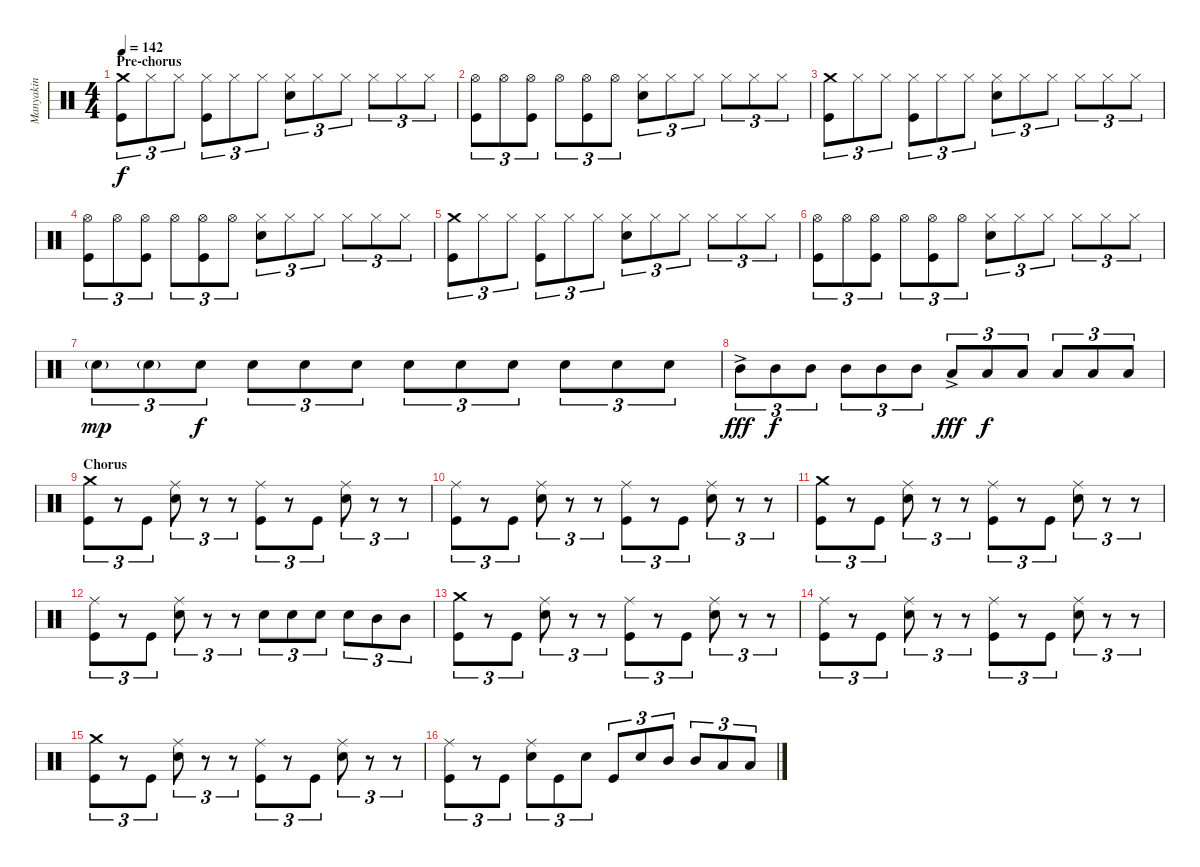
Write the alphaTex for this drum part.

\track ("Manyakin" "Manyakin") {instrument percussion}
\staff {score}
\articulation defaults
\ts (4 4)
\section ("" "Pre-chorus")
\tempo 142
\clef neutral
\ks c
("Kick (hit)" "Crash medium (hit)").8{tu (3 2) dy f} "Hi-Hat (closed)".8{tu (3 2)} "Hi-Hat (closed)".8{tu (3 2)} ("Kick (hit)" "Hi-Hat (closed)").8{tu (3 2)} "Hi-Hat (closed)".8{tu (3 2)} "Hi-Hat (closed)".8{tu (3 2)} ("Electric Snare (hit)" "Hi-Hat (closed)").8{tu (3 2)} "Hi-Hat (closed)".8{tu (3 2)} "Hi-Hat (closed)".8{tu (3 2)} "Hi-Hat (closed)".8{tu (3 2)} "Hi-Hat (closed)".8{tu (3 2)} "Hi-Hat (closed)".8{tu (3 2)} |
("Kick (hit)" "Hi-Hat (open)").8{tu (3 2)} "Hi-Hat (open)".8{tu (3 2)} ("Kick (hit)" "Hi-Hat (open)").8{tu (3 2)} "Hi-Hat (open)".8{tu (3 2)} ("Kick (hit)" "Hi-Hat (open)").8{tu (3 2)} "Hi-Hat (open)".8{tu (3 2)} ("Electric Snare (hit)" "Hi-Hat (closed)").8{tu (3 2)} "Hi-Hat (closed)".8{tu (3 2)} "Hi-Hat (closed)".8{tu (3 2)} "Hi-Hat (closed)".8{tu (3 2)} "Hi-Hat (closed)".8{tu (3 2)} "Hi-Hat (closed)".8{tu (3 2)} |
("Kick (hit)" "Crash medium (hit)").8{tu (3 2)} "Hi-Hat (closed)".8{tu (3 2)} "Hi-Hat (closed)".8{tu (3 2)} ("Kick (hit)" "Hi-Hat (closed)").8{tu (3 2)} "Hi-Hat (closed)".8{tu (3 2)} "Hi-Hat (closed)".8{tu (3 2)} ("Electric Snare (hit)" "Hi-Hat (closed)").8{tu (3 2)} "Hi-Hat (closed)".8{tu (3 2)} "Hi-Hat (closed)".8{tu (3 2)} "Hi-Hat (closed)".8{tu (3 2)} "Hi-Hat (closed)".8{tu (3 2)} "Hi-Hat (closed)".8{tu (3 2)} |
("Kick (hit)" "Hi-Hat (open)").8{tu (3 2)} "Hi-Hat (open)".8{tu (3 2)} ("Kick (hit)" "Hi-Hat (open)").8{tu (3 2)} "Hi-Hat (open)".8{tu (3 2)} ("Kick (hit)" "Hi-Hat (open)").8{tu (3 2)} "Hi-Hat (open)".8{tu (3 2)} ("Electric Snare (hit)" "Hi-Hat (closed)").8{tu (3 2)} "Hi-Hat (closed)".8{tu (3 2)} "Hi-Hat (closed)".8{tu (3 2)} "Hi-Hat (closed)".8{tu (3 2)} "Hi-Hat (closed)".8{tu (3 2)} "Hi-Hat (closed)".8{tu (3 2)} |
("Kick (hit)" "Crash medium (hit)").8{tu (3 2)} "Hi-Hat (closed)".8{tu (3 2)} "Hi-Hat (closed)".8{tu (3 2)} ("Kick (hit)" "Hi-Hat (closed)").8{tu (3 2)} "Hi-Hat (closed)".8{tu (3 2)} "Hi-Hat (closed)".8{tu (3 2)} ("Electric Snare (hit)" "Hi-Hat (closed)").8{tu (3 2)} "Hi-Hat (closed)".8{tu (3 2)} "Hi-Hat (closed)".8{tu (3 2)} "Hi-Hat (closed)".8{tu (3 2)} "Hi-Hat (closed)".8{tu (3 2)} "Hi-Hat (closed)".8{tu (3 2)} |
("Kick (hit)" "Hi-Hat (open)").8{tu (3 2)} "Hi-Hat (open)".8{tu (3 2)} ("Kick (hit)" "Hi-Hat (open)").8{tu (3 2)} "Hi-Hat (open)".8{tu (3 2)} ("Kick (hit)" "Hi-Hat (open)").8{tu (3 2)} "Hi-Hat (open)".8{tu (3 2)} ("Electric Snare (hit)" "Hi-Hat (closed)").8{tu (3 2)} "Hi-Hat (closed)".8{tu (3 2)} "Hi-Hat (closed)".8{tu (3 2)} "Hi-Hat (closed)".8{tu (3 2)} "Hi-Hat (closed)".8{tu (3 2)} "Hi-Hat (closed)".8{tu (3 2)} |
"Electric Snare (hit)"{g}.8{tu (3 2) dy mp} "Electric Snare (hit)"{g}.8{tu (3 2)} "Electric Snare (hit)".8{tu (3 2) dy f} "Electric Snare (hit)".8{tu (3 2)} "Electric Snare (hit)".8{tu (3 2)} "Electric Snare (hit)".8{tu (3 2)} "Electric Snare (hit)".8{tu (3 2)} "Electric Snare (hit)".8{tu (3 2)} "Electric Snare (hit)".8{tu (3 2)} "Electric Snare (hit)".8{tu (3 2)} "Electric Snare (hit)".8{tu (3 2)} "Electric Snare (hit)".8{tu (3 2)} |
"Mid Tom (hit)"{ac}.8{tu (3 2) dy fff} "Mid Tom (hit)".8{tu (3 2) dy f} "Mid Tom (hit)".8{tu (3 2)} "Mid Tom (hit)".8{tu (3 2)} "Mid Tom (hit)".8{tu (3 2)} "Mid Tom (hit)".8{tu (3 2)} "Low Tom (hit)"{ac}.8{tu (3 2) dy fff} "Low Tom (hit)".8{tu (3 2) dy f} "Low Tom (hit)".8{tu (3 2)} "Low Tom (hit)".8{tu (3 2)} "Low Tom (hit)".8{tu (3 2)} "Low Tom (hit)".8{tu (3 2)} |
\section ("" "Chorus")
("Kick (hit)" "Crash medium (hit)").8{tu (3 2)} r.8{tu (3 2)} "Kick (hit)".8{tu (3 2)} ("Electric Snare (hit)" "Ride (middle)").8{tu (3 2)} r.8{tu (3 2)} r.8{tu (3 2)} ("Kick (hit)" "Ride (middle)").8{tu (3 2)} r.8{tu (3 2)} "Kick (hit)".8{tu (3 2)} ("Electric Snare (hit)" "Ride (middle)").8{tu (3 2)} r.8{tu (3 2)} r.8{tu (3 2)} |
("Kick (hit)" "Ride (middle)").8{tu (3 2)} r.8{tu (3 2)} "Kick (hit)".8{tu (3 2)} ("Electric Snare (hit)" "Ride (middle)").8{tu (3 2)} r.8{tu (3 2)} r.8{tu (3 2)} ("Kick (hit)" "Ride (middle)").8{tu (3 2)} r.8{tu (3 2)} "Kick (hit)".8{tu (3 2)} ("Electric Snare (hit)" "Ride (middle)").8{tu (3 2)} r.8{tu (3 2)} r.8{tu (3 2)} |
("Kick (hit)" "Crash medium (hit)").8{tu (3 2)} r.8{tu (3 2)} "Kick (hit)".8{tu (3 2)} ("Electric Snare (hit)" "Ride (middle)").8{tu (3 2)} r.8{tu (3 2)} r.8{tu (3 2)} ("Kick (hit)" "Ride (middle)").8{tu (3 2)} r.8{tu (3 2)} "Kick (hit)".8{tu (3 2)} ("Electric Snare (hit)" "Ride (middle)").8{tu (3 2)} r.8{tu (3 2)} r.8{tu (3 2)} |
("Kick (hit)" "Ride (middle)").8{tu (3 2)} r.8{tu (3 2)} "Kick (hit)".8{tu (3 2)} ("Electric Snare (hit)" "Ride (middle)").8{tu (3 2)} r.8{tu (3 2)} r.8{tu (3 2)} "Electric Snare (hit)".8{tu (3 2)} "Electric Snare (hit)".8{tu (3 2)} "Electric Snare (hit)".8{tu (3 2)} "Electric Snare (hit)".8{tu (3 2)} "Mid Tom (hit)".8{tu (3 2)} "Mid Tom (hit)".8{tu (3 2)} |
("Kick (hit)" "Crash medium (hit)").8{tu (3 2)} r.8{tu (3 2)} "Kick (hit)".8{tu (3 2)} ("Electric Snare (hit)" "Ride (middle)").8{tu (3 2)} r.8{tu (3 2)} r.8{tu (3 2)} ("Kick (hit)" "Ride (middle)").8{tu (3 2)} r.8{tu (3 2)} "Kick (hit)".8{tu (3 2)} ("Electric Snare (hit)" "Ride (middle)").8{tu (3 2)} r.8{tu (3 2)} r.8{tu (3 2)} |
("Kick (hit)" "Ride (middle)").8{tu (3 2)} r.8{tu (3 2)} "Kick (hit)".8{tu (3 2)} ("Electric Snare (hit)" "Ride (middle)").8{tu (3 2)} r.8{tu (3 2)} r.8{tu (3 2)} ("Kick (hit)" "Ride (middle)").8{tu (3 2)} r.8{tu (3 2)} "Kick (hit)".8{tu (3 2)} ("Electric Snare (hit)" "Ride (middle)").8{tu (3 2)} r.8{tu (3 2)} r.8{tu (3 2)} |
("Kick (hit)" "Crash medium (hit)").8{tu (3 2)} r.8{tu (3 2)} "Kick (hit)".8{tu (3 2)} ("Electric Snare (hit)" "Ride (middle)").8{tu (3 2)} r.8{tu (3 2)} r.8{tu (3 2)} ("Kick (hit)" "Ride (middle)").8{tu (3 2)} r.8{tu (3 2)} "Kick (hit)".8{tu (3 2)} ("Electric Snare (hit)" "Ride (middle)").8{tu (3 2)} r.8{tu (3 2)} r.8{tu (3 2)} |
("Kick (hit)" "Ride (middle)").8{tu (3 2)} r.8{tu (3 2)} "Kick (hit)".8{tu (3 2)} ("Electric Snare (hit)" "Ride (middle)").8{tu (3 2)} "Kick (hit)".8{tu (3 2)} "Electric Snare (hit)".8{tu (3 2)} "Kick (hit)".8{tu (3 2)} "Electric Snare (hit)".8{tu (3 2)} "Mid Tom (hit)".8{tu (3 2)} "Mid Tom (hit)".8{tu (3 2)} "Low Tom (hit)".8{tu (3 2)} "Low Tom (hit)".8{tu (3 2)}
